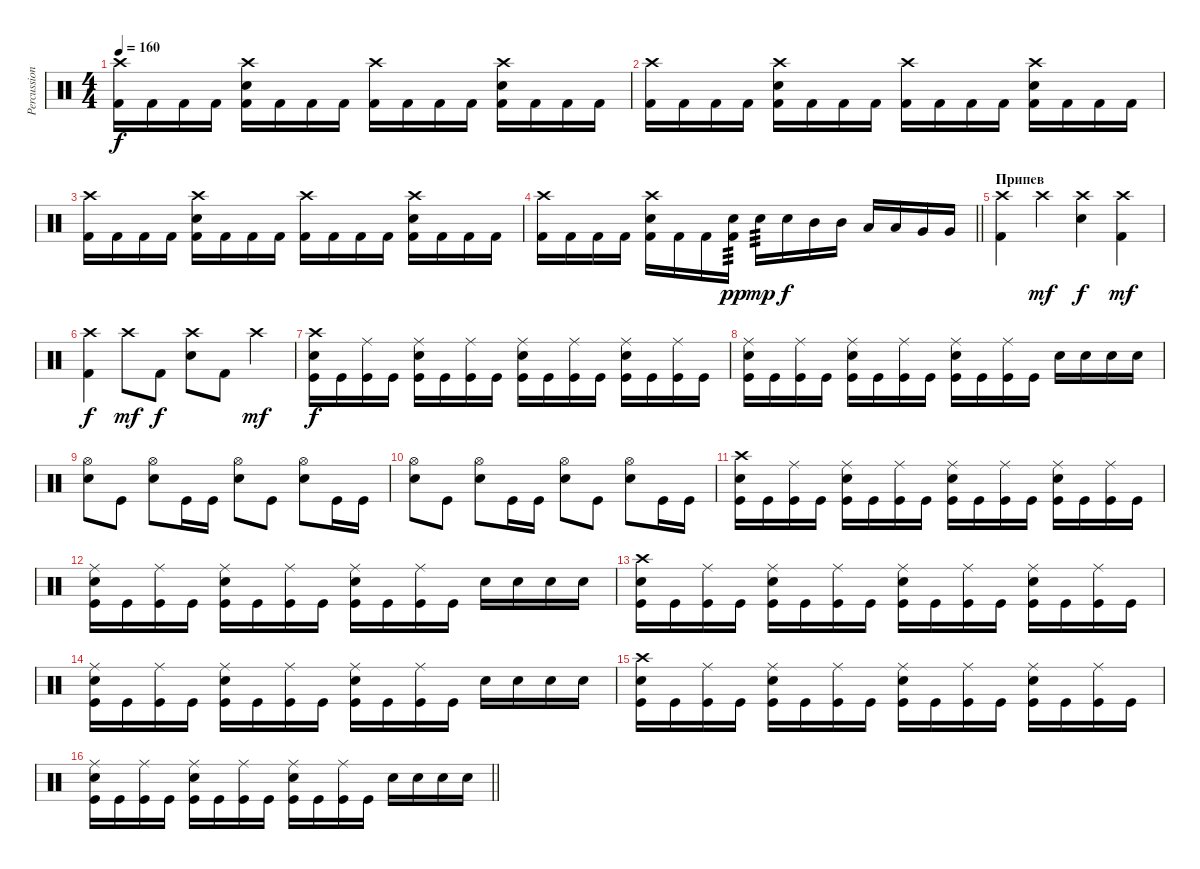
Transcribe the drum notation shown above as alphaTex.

\track ("Percussioni" "Percussion") {instrument percussion}
\staff {score}
\articulation defaults
\ts (4 4)
\tempo 160
\clef neutral
\ks c
("Crash high (hit)" "Kick (hit) 2").16{dy f} "Kick (hit) 2".16 "Kick (hit) 2".16 "Kick (hit) 2".16 ("Crash high (hit)" "Electric Snare (hit)" "Kick (hit) 2").16 "Kick (hit) 2".16 "Kick (hit) 2".16 "Kick (hit) 2".16 ("Crash high (hit)" "Kick (hit) 2").16 "Kick (hit) 2".16 "Kick (hit) 2".16 "Kick (hit) 2".16 ("Crash high (hit)" "Electric Snare (hit)" "Kick (hit) 2").16 "Kick (hit) 2".16 "Kick (hit) 2".16 "Kick (hit) 2".16 |
("Crash high (hit)" "Kick (hit) 2").16 "Kick (hit) 2".16 "Kick (hit) 2".16 "Kick (hit) 2".16 ("Crash high (hit)" "Electric Snare (hit)" "Kick (hit) 2").16 "Kick (hit) 2".16 "Kick (hit) 2".16 "Kick (hit) 2".16 ("Crash high (hit)" "Kick (hit) 2").16 "Kick (hit) 2".16 "Kick (hit) 2".16 "Kick (hit) 2".16 ("Crash high (hit)" "Electric Snare (hit)" "Kick (hit) 2").16 "Kick (hit) 2".16 "Kick (hit) 2".16 "Kick (hit) 2".16 |
("Crash high (hit)" "Kick (hit) 2").16 "Kick (hit) 2".16 "Kick (hit) 2".16 "Kick (hit) 2".16 ("Crash high (hit)" "Electric Snare (hit)" "Kick (hit) 2").16 "Kick (hit) 2".16 "Kick (hit) 2".16 "Kick (hit) 2".16 ("Crash high (hit)" "Kick (hit) 2").16 "Kick (hit) 2".16 "Kick (hit) 2".16 "Kick (hit) 2".16 ("Crash high (hit)" "Electric Snare (hit)" "Kick (hit) 2").16 "Kick (hit) 2".16 "Kick (hit) 2".16 "Kick (hit) 2".16 |
\barLineRight lightlight
("Crash high (hit)" "Kick (hit) 2").16 "Kick (hit) 2".16 "Kick (hit) 2".16 "Kick (hit) 2".16 ("Crash high (hit)" "Electric Snare (hit)" "Kick (hit) 2").16 "Kick (hit) 2".16 "Kick (hit) 2".16 ("Electric Snare (hit)" "Kick (hit) 2").16{tp 3 dy pp} "Electric Snare (hit)".16{tp 3 dy mp} "Electric Snare (hit)".16{dy f} "Mid Tom (hit)".16 "Mid Tom (hit)".16 "Low Tom (hit)".16 "Low Tom (hit)".16 "Very Low Tom (hit)".16 "Very Low Tom (hit)".16 |
\section ("" "Припев")
("Crash high (hit)" "Kick (hit) 2").4 "Crash high (hit)".4{dy mf} ("Crash high (hit)" "Snare (hit) 2").4{dy f} ("Crash high (hit)" "Kick (hit) 2").4{dy mf} |
("Crash high (hit)" "Kick (hit) 2").4{dy f} "Crash high (hit)".8{dy mf} "Kick (hit) 2".8{dy f} ("Crash high (hit)" "Snare (hit) 2").8 "Kick (hit) 2".8 "Crash high (hit)".4{dy mf} |
("Crash high (hit)" "Snare (hit) 2" "Kick (hit)").16{dy f} "Kick (hit)".16 ("Ride (middle)" "Kick (hit)").16 "Kick (hit)".16 ("Ride (middle)" "Snare (hit) 2" "Kick (hit)").16 "Kick (hit)".16 ("Ride (middle)" "Kick (hit)").16 "Kick (hit)".16 ("Ride (middle)" "Snare (hit) 2" "Kick (hit)").16 "Kick (hit)".16 ("Ride (middle)" "Kick (hit)").16 "Kick (hit)".16 ("Ride (middle)" "Snare (hit) 2" "Kick (hit)").16 "Kick (hit)".16 ("Ride (middle)" "Kick (hit)").16 "Kick (hit)".16 |
("Ride (middle)" "Snare (hit) 2" "Kick (hit)").16 "Kick (hit)".16 ("Ride (middle)" "Kick (hit)").16 "Kick (hit)".16 ("Ride (middle)" "Snare (hit) 2" "Kick (hit)").16 "Kick (hit)".16 ("Ride (middle)" "Kick (hit)").16 "Kick (hit)".16 ("Ride (middle)" "Snare (hit) 2" "Kick (hit)").16 "Kick (hit)".16 ("Ride (middle)" "Kick (hit)").16 "Kick (hit)".16 "Snare (hit) 2".16 "Snare (hit) 2".16 "Snare (hit) 2".16 "Snare (hit) 2".16 |
("Hi-Hat (open)" "Snare (hit) 2").8 "Kick (hit)".8 ("Hi-Hat (open)" "Snare (hit) 2").8 "Kick (hit)".16 "Kick (hit)".16 ("Hi-Hat (open)" "Snare (hit) 2").8 "Kick (hit)".8 ("Hi-Hat (open)" "Snare (hit) 2").8 "Kick (hit)".16 "Kick (hit)".16 |
("Hi-Hat (open)" "Snare (hit) 2").8 "Kick (hit)".8 ("Hi-Hat (open)" "Snare (hit) 2").8 "Kick (hit)".16 "Kick (hit)".16 ("Hi-Hat (open)" "Snare (hit) 2").8 "Kick (hit)".8 ("Hi-Hat (open)" "Snare (hit) 2").8 "Kick (hit)".16 "Kick (hit)".16 |
("Crash high (hit)" "Snare (hit) 2" "Kick (hit)").16 "Kick (hit)".16 ("Ride (middle)" "Kick (hit)").16 "Kick (hit)".16 ("Ride (middle)" "Snare (hit) 2" "Kick (hit)").16 "Kick (hit)".16 ("Ride (middle)" "Kick (hit)").16 "Kick (hit)".16 ("Ride (middle)" "Snare (hit) 2" "Kick (hit)").16 "Kick (hit)".16 ("Ride (middle)" "Kick (hit)").16 "Kick (hit)".16 ("Ride (middle)" "Snare (hit) 2" "Kick (hit)").16 "Kick (hit)".16 ("Ride (middle)" "Kick (hit)").16 "Kick (hit)".16 |
("Ride (middle)" "Snare (hit) 2" "Kick (hit)").16 "Kick (hit)".16 ("Ride (middle)" "Kick (hit)").16 "Kick (hit)".16 ("Ride (middle)" "Snare (hit) 2" "Kick (hit)").16 "Kick (hit)".16 ("Ride (middle)" "Kick (hit)").16 "Kick (hit)".16 ("Ride (middle)" "Snare (hit) 2" "Kick (hit)").16 "Kick (hit)".16 ("Ride (middle)" "Kick (hit)").16 "Kick (hit)".16 "Snare (hit) 2".16 "Snare (hit) 2".16 "Snare (hit) 2".16 "Snare (hit) 2".16 |
("Crash high (hit)" "Snare (hit) 2" "Kick (hit)").16 "Kick (hit)".16 ("Ride (middle)" "Kick (hit)").16 "Kick (hit)".16 ("Ride (middle)" "Snare (hit) 2" "Kick (hit)").16 "Kick (hit)".16 ("Ride (middle)" "Kick (hit)").16 "Kick (hit)".16 ("Ride (middle)" "Snare (hit) 2" "Kick (hit)").16 "Kick (hit)".16 ("Ride (middle)" "Kick (hit)").16 "Kick (hit)".16 ("Ride (middle)" "Snare (hit) 2" "Kick (hit)").16 "Kick (hit)".16 ("Ride (middle)" "Kick (hit)").16 "Kick (hit)".16 |
("Ride (middle)" "Snare (hit) 2" "Kick (hit)").16 "Kick (hit)".16 ("Ride (middle)" "Kick (hit)").16 "Kick (hit)".16 ("Ride (middle)" "Snare (hit) 2" "Kick (hit)").16 "Kick (hit)".16 ("Ride (middle)" "Kick (hit)").16 "Kick (hit)".16 ("Ride (middle)" "Snare (hit) 2" "Kick (hit)").16 "Kick (hit)".16 ("Ride (middle)" "Kick (hit)").16 "Kick (hit)".16 "Snare (hit) 2".16 "Snare (hit) 2".16 "Snare (hit) 2".16 "Snare (hit) 2".16 |
("Crash high (hit)" "Snare (hit) 2" "Kick (hit)").16 "Kick (hit)".16 ("Ride (middle)" "Kick (hit)").16 "Kick (hit)".16 ("Ride (middle)" "Snare (hit) 2" "Kick (hit)").16 "Kick (hit)".16 ("Ride (middle)" "Kick (hit)").16 "Kick (hit)".16 ("Ride (middle)" "Snare (hit) 2" "Kick (hit)").16 "Kick (hit)".16 ("Ride (middle)" "Kick (hit)").16 "Kick (hit)".16 ("Ride (middle)" "Snare (hit) 2" "Kick (hit)").16 "Kick (hit)".16 ("Ride (middle)" "Kick (hit)").16 "Kick (hit)".16 |
\barLineRight lightlight
("Ride (middle)" "Snare (hit) 2" "Kick (hit)").16 "Kick (hit)".16 ("Ride (middle)" "Kick (hit)").16 "Kick (hit)".16 ("Ride (middle)" "Snare (hit) 2" "Kick (hit)").16 "Kick (hit)".16 ("Ride (middle)" "Kick (hit)").16 "Kick (hit)".16 ("Ride (middle)" "Snare (hit) 2" "Kick (hit)").16 "Kick (hit)".16 ("Ride (middle)" "Kick (hit)").16 "Kick (hit)".16 "Snare (hit) 2".16 "Snare (hit) 2".16 "Snare (hit) 2".16 "Snare (hit) 2".16
